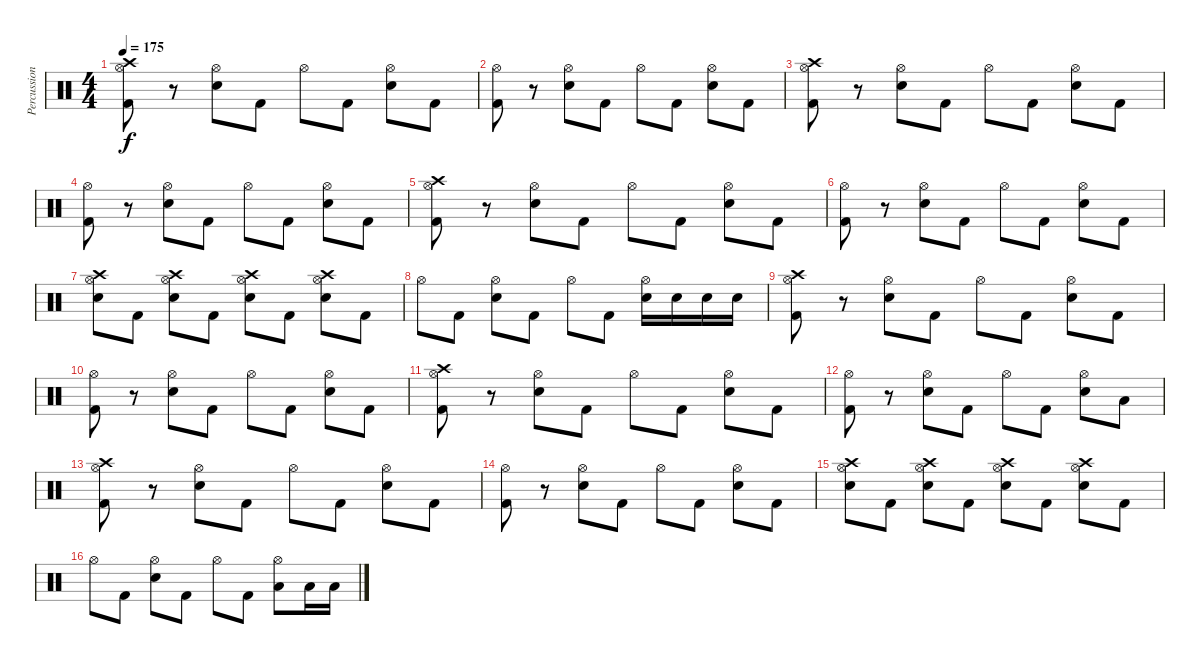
\track ("Percussion" "Percussion") {instrument percussion}
\staff {score}
\articulation defaults
\ts (4 4)
\tempo 175
\clef neutral
\ks c
("Crash high (hit)" "Hi-Hat (open)" "Kick (hit) 2").8{dy f} r.8 ("Hi-Hat (open)" "Electric Snare (hit)").8 "Kick (hit) 2".8 "Hi-Hat (open)".8 "Kick (hit) 2".8 ("Hi-Hat (open)" "Electric Snare (hit)").8 "Kick (hit) 2".8 |
("Hi-Hat (open)" "Kick (hit) 2").8 r.8 ("Hi-Hat (open)" "Electric Snare (hit)").8 "Kick (hit) 2".8 "Hi-Hat (open)".8 "Kick (hit) 2".8 ("Hi-Hat (open)" "Electric Snare (hit)").8 "Kick (hit) 2".8 |
("Crash high (hit)" "Hi-Hat (open)" "Kick (hit) 2").8 r.8 ("Hi-Hat (open)" "Electric Snare (hit)").8 "Kick (hit) 2".8 "Hi-Hat (open)".8 "Kick (hit) 2".8 ("Hi-Hat (open)" "Electric Snare (hit)").8 "Kick (hit) 2".8 |
("Hi-Hat (open)" "Kick (hit) 2").8 r.8 ("Hi-Hat (open)" "Electric Snare (hit)").8 "Kick (hit) 2".8 "Hi-Hat (open)".8 "Kick (hit) 2".8 ("Hi-Hat (open)" "Electric Snare (hit)").8 "Kick (hit) 2".8 |
("Crash high (hit)" "Hi-Hat (open)" "Kick (hit) 2").8 r.8 ("Hi-Hat (open)" "Electric Snare (hit)").8 "Kick (hit) 2".8 "Hi-Hat (open)".8 "Kick (hit) 2".8 ("Hi-Hat (open)" "Electric Snare (hit)").8 "Kick (hit) 2".8 |
("Hi-Hat (open)" "Kick (hit) 2").8 r.8 ("Hi-Hat (open)" "Electric Snare (hit)").8 "Kick (hit) 2".8 "Hi-Hat (open)".8 "Kick (hit) 2".8 ("Hi-Hat (open)" "Electric Snare (hit)").8 "Kick (hit) 2".8 |
("Crash high (hit)" "Hi-Hat (open)" "Electric Snare (hit)").8 "Kick (hit) 2".8 ("Crash high (hit)" "Hi-Hat (open)" "Electric Snare (hit)").8 "Kick (hit) 2".8 ("Crash high (hit)" "Hi-Hat (open)" "Electric Snare (hit)").8 "Kick (hit) 2".8 ("Crash high (hit)" "Hi-Hat (open)" "Electric Snare (hit)").8 "Kick (hit) 2".8 |
"Hi-Hat (open)".8 "Kick (hit) 2".8 ("Hi-Hat (open)" "Electric Snare (hit)").8 "Kick (hit) 2".8 "Hi-Hat (open)".8 "Kick (hit) 2".8 ("Hi-Hat (open)" "Electric Snare (hit)").16 "Electric Snare (hit)".16 "Electric Snare (hit)".16 "Electric Snare (hit)".16 |
("Crash high (hit)" "Hi-Hat (open)" "Kick (hit) 2").8 r.8 ("Hi-Hat (open)" "Electric Snare (hit)").8 "Kick (hit) 2".8 "Hi-Hat (open)".8 "Kick (hit) 2".8 ("Hi-Hat (open)" "Electric Snare (hit)").8 "Kick (hit) 2".8 |
("Hi-Hat (open)" "Kick (hit) 2").8 r.8 ("Hi-Hat (open)" "Electric Snare (hit)").8 "Kick (hit) 2".8 "Hi-Hat (open)".8 "Kick (hit) 2".8 ("Hi-Hat (open)" "Electric Snare (hit)").8 "Kick (hit) 2".8 |
("Crash high (hit)" "Hi-Hat (open)" "Kick (hit) 2").8 r.8 ("Hi-Hat (open)" "Electric Snare (hit)").8 "Kick (hit) 2".8 "Hi-Hat (open)".8 "Kick (hit) 2".8 ("Hi-Hat (open)" "Electric Snare (hit)").8 "Kick (hit) 2".8 |
("Hi-Hat (open)" "Kick (hit) 2").8 r.8 ("Hi-Hat (open)" "Electric Snare (hit)").8 "Kick (hit) 2".8 "Hi-Hat (open)".8 "Kick (hit) 2".8 ("Hi-Hat (open)" "Electric Snare (hit)").8 "Low Tom (hit)".8 |
("Crash high (hit)" "Hi-Hat (open)" "Kick (hit) 2").8 r.8 ("Hi-Hat (open)" "Electric Snare (hit)").8 "Kick (hit) 2".8 "Hi-Hat (open)".8 "Kick (hit) 2".8 ("Hi-Hat (open)" "Electric Snare (hit)").8 "Kick (hit) 2".8 |
("Hi-Hat (open)" "Kick (hit) 2").8 r.8 ("Hi-Hat (open)" "Electric Snare (hit)").8 "Kick (hit) 2".8 "Hi-Hat (open)".8 "Kick (hit) 2".8 ("Hi-Hat (open)" "Electric Snare (hit)").8 "Kick (hit) 2".8 |
("Crash high (hit)" "Hi-Hat (open)" "Electric Snare (hit)").8 "Kick (hit) 2".8 ("Crash high (hit)" "Hi-Hat (open)" "Electric Snare (hit)").8 "Kick (hit) 2".8 ("Crash high (hit)" "Hi-Hat (open)" "Electric Snare (hit)").8 "Kick (hit) 2".8 ("Crash high (hit)" "Hi-Hat (open)" "Electric Snare (hit)").8 "Kick (hit) 2".8 |
"Hi-Hat (open)".8 "Kick (hit) 2".8 ("Hi-Hat (open)" "Electric Snare (hit)").8 "Kick (hit) 2".8 "Hi-Hat (open)".8 "Kick (hit) 2".8 ("Hi-Hat (open)" "Low Tom (hit)").8 "Low Tom (hit)".16 "Low Tom (hit)".16
